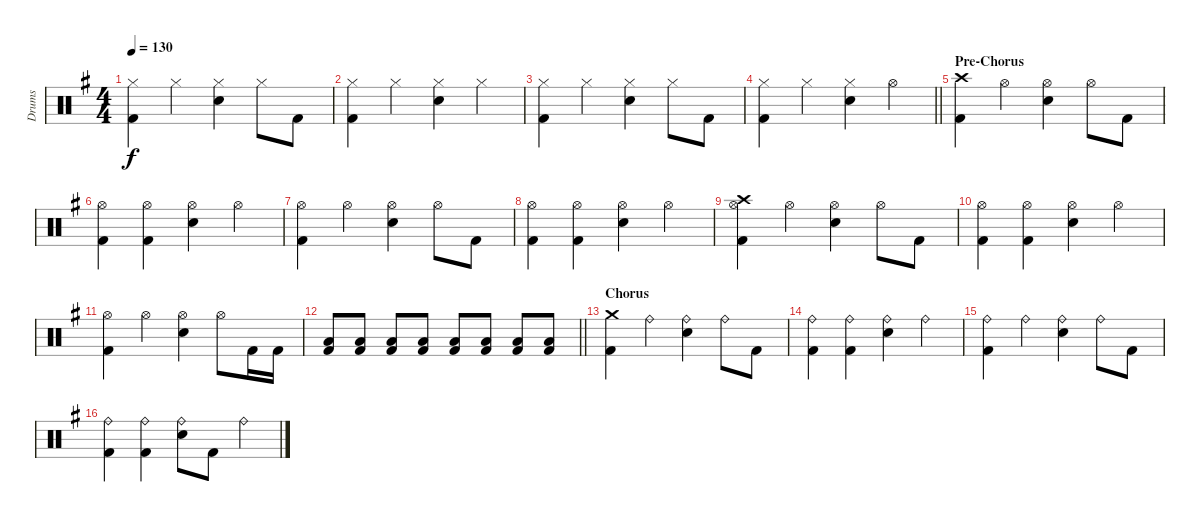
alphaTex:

\track ("Drums" "Drums") {instrument percussion}
\staff {score}
\articulation defaults
\ts (4 4)
\tempo 130
\clef neutral
\ks eminor
("Hi-Hat (closed)" "Kick (hit) 2").4{dy f} "Hi-Hat (closed)".4 ("Hi-Hat (closed)" "Snare (hit) 2").4 "Hi-Hat (closed)".8 "Kick (hit) 2".8 |
("Hi-Hat (closed)" "Kick (hit) 2").4 "Hi-Hat (closed)".4 ("Hi-Hat (closed)" "Snare (hit) 2").4 "Hi-Hat (closed)".4 |
("Hi-Hat (closed)" "Kick (hit) 2").4 "Hi-Hat (closed)".4 ("Hi-Hat (closed)" "Snare (hit) 2").4 "Hi-Hat (closed)".8 "Kick (hit) 2".8 |
\barLineRight lightlight
("Hi-Hat (closed)" "Kick (hit) 2").4 "Hi-Hat (closed)".4 ("Hi-Hat (closed)" "Snare (hit) 2").4 "Hi-Hat (open)".4 |
\section ("" "Pre-Chorus")
("Crash high (hit)" "Kick (hit) 2").4 "Hi-Hat (open)".4 ("Hi-Hat (open)" "Snare (hit) 2").4 "Hi-Hat (open)".8 "Kick (hit) 2".8 |
("Hi-Hat (open)" "Kick (hit) 2").4 ("Hi-Hat (open)" "Kick (hit) 2").4 ("Hi-Hat (open)" "Snare (hit) 2").4 "Hi-Hat (open)".4 |
("Hi-Hat (open)" "Kick (hit) 2").4 "Hi-Hat (open)".4 ("Hi-Hat (open)" "Snare (hit) 2").4 "Hi-Hat (open)".8 "Kick (hit) 2".8 |
("Hi-Hat (open)" "Kick (hit) 2").4 ("Hi-Hat (open)" "Kick (hit) 2").4 ("Hi-Hat (open)" "Snare (hit) 2").4 "Hi-Hat (open)".4 |
("Crash high (hit)" "Hi-Hat (open)" "Kick (hit) 2").4 "Hi-Hat (open)".4 ("Hi-Hat (open)" "Snare (hit) 2").4 "Hi-Hat (open)".8 "Kick (hit) 2".8 |
("Hi-Hat (open)" "Kick (hit) 2").4 ("Hi-Hat (open)" "Kick (hit) 2").4 ("Hi-Hat (open)" "Snare (hit) 2").4 "Hi-Hat (open)".4 |
("Hi-Hat (open)" "Kick (hit) 2").4 "Hi-Hat (open)".4 ("Hi-Hat (open)" "Snare (hit) 2").4 "Hi-Hat (open)".8 "Kick (hit) 2".16 "Kick (hit) 2".16 |
\barLineRight lightlight
("Low Floor Tom (hit)" "Kick (hit) 2").8 ("Low Floor Tom (hit)" "Kick (hit) 2").8 ("Low Floor Tom (hit)" "Kick (hit) 2").8 ("Low Floor Tom (hit)" "Kick (hit) 2").8 ("Low Floor Tom (hit)" "Kick (hit) 2").8 ("Low Floor Tom (hit)" "Kick (hit) 2").8 ("Low Floor Tom (hit)" "Kick (hit) 2").8 ("Low Floor Tom (hit)" "Kick (hit) 2").8 |
\section ("" "Chorus")
("Crash medium (hit)" "Kick (hit) 2").4 "Ride (bell)".4 ("Ride (bell)" "Snare (hit) 2").4 "Ride (bell)".8 "Kick (hit) 2".8 |
("Ride (bell)" "Kick (hit) 2").4 ("Ride (bell)" "Kick (hit) 2").4 ("Ride (bell)" "Snare (hit) 2").4 "Ride (bell)".4 |
("Ride (bell)" "Kick (hit) 2").4 "Ride (bell)".4 ("Ride (bell)" "Snare (hit) 2").4 "Ride (bell)".8 "Kick (hit) 2".8 |
("Ride (bell)" "Kick (hit) 2").4 ("Ride (bell)" "Kick (hit) 2").4 ("Ride (bell)" "Snare (hit) 2").8 "Kick (hit) 2".8 "Ride (bell)".4
